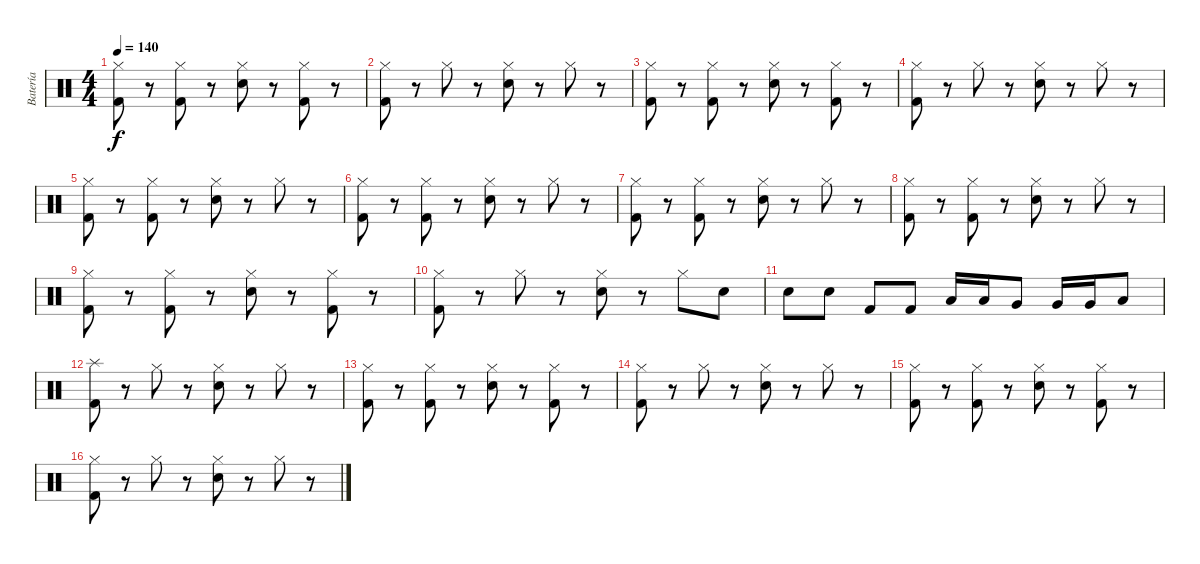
\track ("Batería" "Batería") {instrument percussion}
\staff {score}
\articulation defaults
\ts (4 4)
\tempo 140
\clef neutral
\ks c
("Hi-Hat (closed)" "Kick (hit) 2").8{dy f} r.8 ("Hi-Hat (closed)" "Kick (hit) 2").8 r.8 ("Hi-Hat (closed)" "Snare (hit) 2").8 r.8 ("Hi-Hat (closed)" "Kick (hit) 2").8 r.8 |
("Hi-Hat (closed)" "Kick (hit) 2").8 r.8 "Hi-Hat (closed)".8 r.8 ("Hi-Hat (closed)" "Snare (hit) 2").8 r.8 "Hi-Hat (closed)".8 r.8 |
("Hi-Hat (closed)" "Kick (hit) 2").8 r.8 ("Hi-Hat (closed)" "Kick (hit) 2").8 r.8 ("Hi-Hat (closed)" "Snare (hit) 2").8 r.8 ("Hi-Hat (closed)" "Kick (hit) 2").8 r.8 |
("Hi-Hat (closed)" "Kick (hit) 2").8 r.8 "Hi-Hat (closed)".8 r.8 ("Hi-Hat (closed)" "Snare (hit) 2").8 r.8 "Hi-Hat (closed)".8 r.8 |
("Hi-Hat (closed)" "Kick (hit) 2").8 r.8 ("Hi-Hat (closed)" "Kick (hit) 2").8 r.8 ("Hi-Hat (closed)" "Snare (hit) 2").8 r.8 "Hi-Hat (closed)".8 r.8 |
("Hi-Hat (closed)" "Kick (hit) 2").8 r.8 ("Hi-Hat (closed)" "Kick (hit) 2").8 r.8 ("Hi-Hat (closed)" "Snare (hit) 2").8 r.8 "Hi-Hat (closed)".8 r.8 |
("Hi-Hat (closed)" "Kick (hit) 2").8 r.8 ("Hi-Hat (closed)" "Kick (hit) 2").8 r.8 ("Hi-Hat (closed)" "Snare (hit) 2").8 r.8 "Hi-Hat (closed)".8 r.8 |
("Hi-Hat (closed)" "Kick (hit) 2").8 r.8 ("Hi-Hat (closed)" "Kick (hit) 2").8 r.8 ("Hi-Hat (closed)" "Snare (hit) 2").8 r.8 "Hi-Hat (closed)".8 r.8 |
("Hi-Hat (closed)" "Kick (hit) 2").8 r.8 ("Hi-Hat (closed)" "Kick (hit) 2").8 r.8 ("Hi-Hat (closed)" "Snare (hit) 2").8 r.8 ("Hi-Hat (closed)" "Kick (hit) 2").8 r.8 |
("Hi-Hat (closed)" "Kick (hit) 2").8 r.8 "Hi-Hat (closed)".8 r.8 ("Hi-Hat (closed)" "Snare (hit) 2").8 r.8 "Hi-Hat (closed)".8 "Snare (hit) 2".8 |
"Snare (hit) 2".8 "Snare (hit) 2".8 "Kick (hit) 2".8 "Kick (hit) 2".8 "Low Tom (hit)".16 "Low Tom (hit)".16 "Very Low Tom (hit)".8 "Very Low Tom (hit)".16 "Very Low Tom (hit)".16 "Low Floor Tom (hit)".8 |
("Splash (hit)" "Kick (hit) 2").8 r.8 "Hi-Hat (closed)".8 r.8 ("Hi-Hat (closed)" "Snare (hit) 2").8 r.8 "Hi-Hat (closed)".8 r.8 |
("Hi-Hat (closed)" "Kick (hit) 2").8 r.8 ("Hi-Hat (closed)" "Kick (hit) 2").8 r.8 ("Hi-Hat (closed)" "Snare (hit) 2").8 r.8 ("Hi-Hat (closed)" "Kick (hit) 2").8 r.8 |
("Hi-Hat (closed)" "Kick (hit) 2").8 r.8 "Hi-Hat (closed)".8 r.8 ("Hi-Hat (closed)" "Snare (hit) 2").8 r.8 "Hi-Hat (closed)".8 r.8 |
("Hi-Hat (closed)" "Kick (hit) 2").8 r.8 ("Hi-Hat (closed)" "Kick (hit) 2").8 r.8 ("Hi-Hat (closed)" "Snare (hit) 2").8 r.8 ("Hi-Hat (closed)" "Kick (hit) 2").8 r.8 |
("Hi-Hat (closed)" "Kick (hit) 2").8 r.8 "Hi-Hat (closed)".8 r.8 ("Hi-Hat (closed)" "Snare (hit) 2").8 r.8 "Hi-Hat (closed)".8 r.8
